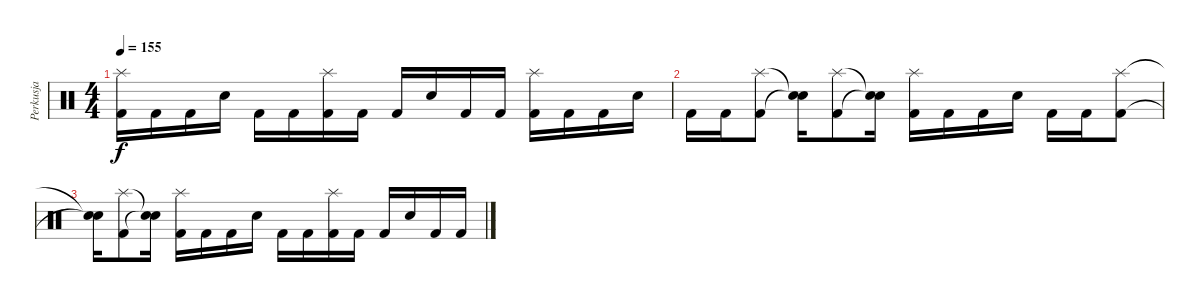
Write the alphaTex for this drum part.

\track ("Perkusja" "Perkusja") {instrument percussion}
\staff {score}
\articulation defaults
\ts (4 4)
\tempo 155
\clef neutral
\ks c
("Splash (hit)" "Kick (hit) 2").16{dy f} "Kick (hit) 2".16 "Kick (hit) 2".16 "Snare (hit) 2".16 "Kick (hit) 2".16 "Kick (hit) 2".16 ("Splash (hit)" "Kick (hit) 2").16 "Kick (hit) 2".16 "Kick (hit) 2".16 "Snare (hit) 2".16 "Kick (hit) 2".16 "Kick (hit) 2".16 ("Splash (hit)" "Kick (hit) 2").16 "Kick (hit) 2".16 "Kick (hit) 2".16 "Snare (hit) 2".16 |
"Kick (hit) 2".16 "Kick (hit) 2".16 ("Splash (hit)" "Kick (hit) 2").8 ("Snare (hit)"{t} "Snare (hit)"{t}).16 ("Splash (hit)" "Kick (hit) 2").8 ("Snare (hit)"{t} "Snare (hit)"{t}).16 ("Splash (hit)" "Kick (hit) 2").16 "Kick (hit) 2".16 "Kick (hit) 2".16 "Snare (hit) 2".16 "Kick (hit) 2".16 "Kick (hit) 2".16 ("Splash (hit)" "Kick (hit) 2").8 |
("Snare (hit)"{t} "Snare (hit)"{t}).16 ("Splash (hit)" "Kick (hit) 2").8 ("Snare (hit)"{t} "Snare (hit)"{t}).16 ("Splash (hit)" "Kick (hit) 2").16 "Kick (hit) 2".16 "Kick (hit) 2".16 "Snare (hit) 2".16 "Kick (hit) 2".16 "Kick (hit) 2".16 ("Splash (hit)" "Kick (hit) 2").16 "Kick (hit) 2".16 "Kick (hit) 2".16 "Snare (hit) 2".16 "Kick (hit) 2".16 "Kick (hit) 2".16
